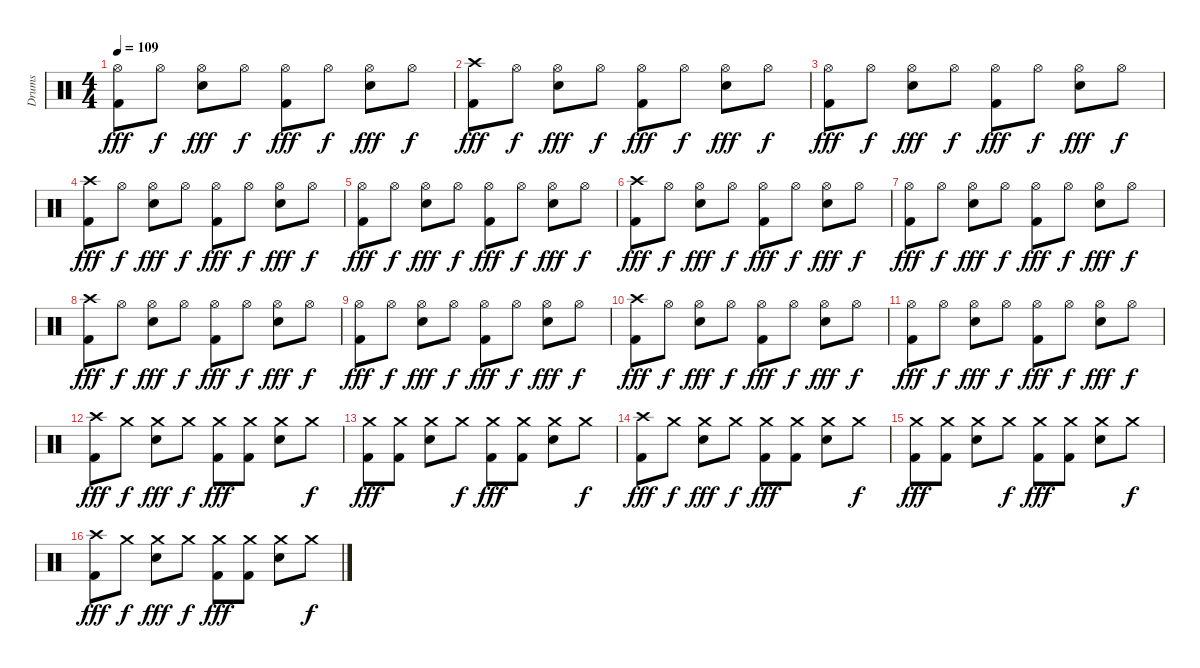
\track ("Drums" "Drums") {instrument percussion}
\staff {score}
\articulation defaults
\ts (4 4)
\tempo 109
\clef neutral
\ks c
("Hi-Hat (open)" "Kick (hit) 2").8{dy fff} "Hi-Hat (open)".8{dy f} ("Hi-Hat (open)" "Electric Snare (hit)").8{dy fff} "Hi-Hat (open)".8{dy f} ("Hi-Hat (open)" "Kick (hit) 2").8{dy fff} "Hi-Hat (open)".8{dy f} ("Hi-Hat (open)" "Electric Snare (hit)").8{dy fff} "Hi-Hat (open)".8{dy f} |
("Crash high (hit)" "Kick (hit) 2").8{dy fff} "Hi-Hat (open)".8{dy f} ("Hi-Hat (open)" "Electric Snare (hit)").8{dy fff} "Hi-Hat (open)".8{dy f} ("Hi-Hat (open)" "Kick (hit) 2").8{dy fff} "Hi-Hat (open)".8{dy f} ("Hi-Hat (open)" "Electric Snare (hit)").8{dy fff} "Hi-Hat (open)".8{dy f} |
("Hi-Hat (open)" "Kick (hit) 2").8{dy fff} "Hi-Hat (open)".8{dy f} ("Hi-Hat (open)" "Electric Snare (hit)").8{dy fff} "Hi-Hat (open)".8{dy f} ("Hi-Hat (open)" "Kick (hit) 2").8{dy fff} "Hi-Hat (open)".8{dy f} ("Hi-Hat (open)" "Electric Snare (hit)").8{dy fff} "Hi-Hat (open)".8{dy f} |
("Crash high (hit)" "Kick (hit) 2").8{dy fff} "Hi-Hat (open)".8{dy f} ("Hi-Hat (open)" "Electric Snare (hit)").8{dy fff} "Hi-Hat (open)".8{dy f} ("Hi-Hat (open)" "Kick (hit) 2").8{dy fff} "Hi-Hat (open)".8{dy f} ("Hi-Hat (open)" "Electric Snare (hit)").8{dy fff} "Hi-Hat (open)".8{dy f} |
("Hi-Hat (open)" "Kick (hit) 2").8{dy fff} "Hi-Hat (open)".8{dy f} ("Hi-Hat (open)" "Electric Snare (hit)").8{dy fff} "Hi-Hat (open)".8{dy f} ("Hi-Hat (open)" "Kick (hit) 2").8{dy fff} "Hi-Hat (open)".8{dy f} ("Hi-Hat (open)" "Electric Snare (hit)").8{dy fff} "Hi-Hat (open)".8{dy f} |
("Crash high (hit)" "Kick (hit) 2").8{dy fff} "Hi-Hat (open)".8{dy f} ("Hi-Hat (open)" "Electric Snare (hit)").8{dy fff} "Hi-Hat (open)".8{dy f} ("Hi-Hat (open)" "Kick (hit) 2").8{dy fff} "Hi-Hat (open)".8{dy f} ("Hi-Hat (open)" "Electric Snare (hit)").8{dy fff} "Hi-Hat (open)".8{dy f} |
("Hi-Hat (open)" "Kick (hit) 2").8{dy fff} "Hi-Hat (open)".8{dy f} ("Hi-Hat (open)" "Electric Snare (hit)").8{dy fff} "Hi-Hat (open)".8{dy f} ("Hi-Hat (open)" "Kick (hit) 2").8{dy fff} "Hi-Hat (open)".8{dy f} ("Hi-Hat (open)" "Electric Snare (hit)").8{dy fff} "Hi-Hat (open)".8{dy f} |
("Crash high (hit)" "Kick (hit) 2").8{dy fff} "Hi-Hat (open)".8{dy f} ("Hi-Hat (open)" "Electric Snare (hit)").8{dy fff} "Hi-Hat (open)".8{dy f} ("Hi-Hat (open)" "Kick (hit) 2").8{dy fff} "Hi-Hat (open)".8{dy f} ("Hi-Hat (open)" "Electric Snare (hit)").8{dy fff} "Hi-Hat (open)".8{dy f} |
("Hi-Hat (open)" "Kick (hit) 2").8{dy fff} "Hi-Hat (open)".8{dy f} ("Hi-Hat (open)" "Electric Snare (hit)").8{dy fff} "Hi-Hat (open)".8{dy f} ("Hi-Hat (open)" "Kick (hit) 2").8{dy fff} "Hi-Hat (open)".8{dy f} ("Hi-Hat (open)" "Electric Snare (hit)").8{dy fff} "Hi-Hat (open)".8{dy f} |
("Crash high (hit)" "Kick (hit) 2").8{dy fff} "Hi-Hat (open)".8{dy f} ("Hi-Hat (open)" "Electric Snare (hit)").8{dy fff} "Hi-Hat (open)".8{dy f} ("Hi-Hat (open)" "Kick (hit) 2").8{dy fff} "Hi-Hat (open)".8{dy f} ("Hi-Hat (open)" "Electric Snare (hit)").8{dy fff} "Hi-Hat (open)".8{dy f} |
("Hi-Hat (open)" "Kick (hit) 2").8{dy fff} "Hi-Hat (open)".8{dy f} ("Hi-Hat (open)" "Electric Snare (hit)").8{dy fff} "Hi-Hat (open)".8{dy f} ("Hi-Hat (open)" "Kick (hit) 2").8{dy fff} "Hi-Hat (open)".8{dy f} ("Hi-Hat (open)" "Electric Snare (hit)").8{dy fff} "Hi-Hat (open)".8{dy f} |
("Crash high (hit)" "Kick (hit) 2").8{dy fff} "Crash medium (hit)".8{dy f} ("Crash medium (hit)" "Electric Snare (hit)").8{dy fff} "Crash medium (hit)".8{dy f} ("Crash medium (hit)" "Kick (hit) 2").8{dy fff} ("Crash medium (hit)" "Kick (hit) 2").8 ("Crash medium (hit)" "Electric Snare (hit)").8 "Crash medium (hit)".8{dy f} |
("Crash medium (hit)" "Kick (hit) 2").8{dy fff} ("Crash medium (hit)" "Kick (hit) 2").8 ("Crash medium (hit)" "Electric Snare (hit)").8 "Crash medium (hit)".8{dy f} ("Crash medium (hit)" "Kick (hit) 2").8{dy fff} ("Crash medium (hit)" "Kick (hit) 2").8 ("Crash medium (hit)" "Electric Snare (hit)").8 "Crash medium (hit)".8{dy f} |
("Crash high (hit)" "Kick (hit) 2").8{dy fff} "Crash medium (hit)".8{dy f} ("Crash medium (hit)" "Electric Snare (hit)").8{dy fff} "Crash medium (hit)".8{dy f} ("Crash medium (hit)" "Kick (hit) 2").8{dy fff} ("Crash medium (hit)" "Kick (hit) 2").8 ("Crash medium (hit)" "Electric Snare (hit)").8 "Crash medium (hit)".8{dy f} |
("Crash medium (hit)" "Kick (hit) 2").8{dy fff} ("Crash medium (hit)" "Kick (hit) 2").8 ("Crash medium (hit)" "Electric Snare (hit)").8 "Crash medium (hit)".8{dy f} ("Crash medium (hit)" "Kick (hit) 2").8{dy fff} ("Crash medium (hit)" "Kick (hit) 2").8 ("Crash medium (hit)" "Electric Snare (hit)").8 "Crash medium (hit)".8{dy f} |
("Crash high (hit)" "Kick (hit) 2").8{dy fff} "Crash medium (hit)".8{dy f} ("Crash medium (hit)" "Electric Snare (hit)").8{dy fff} "Crash medium (hit)".8{dy f} ("Crash medium (hit)" "Kick (hit) 2").8{dy fff} ("Crash medium (hit)" "Kick (hit) 2").8 ("Crash medium (hit)" "Electric Snare (hit)").8 "Crash medium (hit)".8{dy f}
